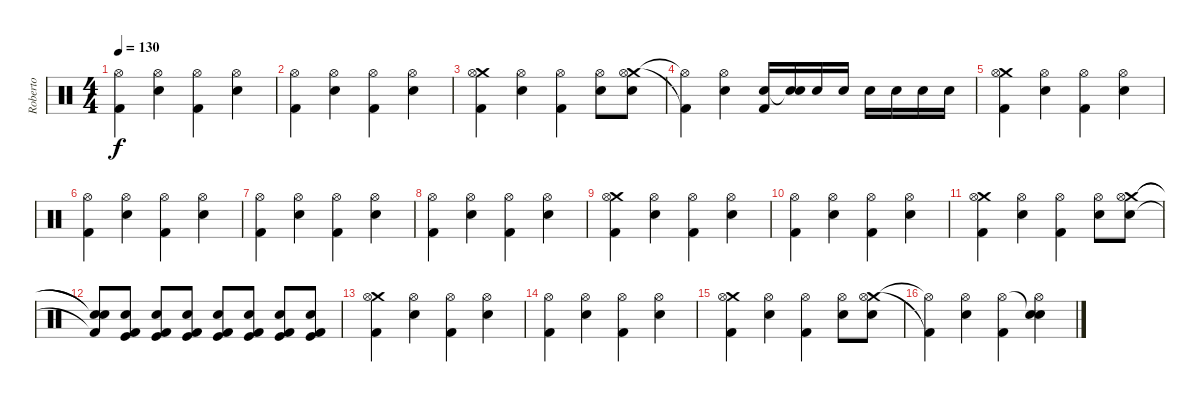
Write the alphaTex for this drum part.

\track ("Roberto" "Roberto") {instrument percussion}
\staff {score}
\articulation defaults
\ts (4 4)
\tempo 130
\clef neutral
\ks c
("Hi-Hat (open)" "Kick (hit) 2").4{dy f} ("Hi-Hat (open)" "Snare (hit) 2").4 ("Hi-Hat (open)" "Kick (hit) 2").4 ("Hi-Hat (open)" "Snare (hit) 2").4 |
("Hi-Hat (open)" "Kick (hit) 2").4 ("Hi-Hat (open)" "Snare (hit) 2").4 ("Hi-Hat (open)" "Kick (hit) 2").4 ("Hi-Hat (open)" "Snare (hit) 2").4 |
("Crash medium (hit)" "Hi-Hat (open)" "Kick (hit) 2").4 ("Hi-Hat (open)" "Snare (hit) 2").4 ("Hi-Hat (open)" "Kick (hit) 2").4 ("Hi-Hat (open)" "Snare (hit) 2").8 ("Crash medium (hit)" "Hi-Hat (open)" "Snare (hit) 2").8 |
("Hi-Hat (open)"{t} "Kick (hit) 2"{t}).4 ("Hi-Hat (open)" "Snare (hit) 2").4 ("Snare (hit) 2" "Kick (hit) 2").16 ("Snare (hit)"{t} "Snare (hit) 2").16 "Snare (hit) 2".16 "Snare (hit) 2".16 "Snare (hit) 2".16 "Snare (hit) 2".16 "Snare (hit) 2".16 "Snare (hit) 2".16 |
("Crash medium (hit)" "Hi-Hat (open)" "Kick (hit) 2").4 ("Hi-Hat (open)" "Snare (hit) 2").4 ("Hi-Hat (open)" "Kick (hit) 2").4 ("Hi-Hat (open)" "Snare (hit) 2").4 |
("Hi-Hat (open)" "Kick (hit) 2").4 ("Hi-Hat (open)" "Snare (hit) 2").4 ("Hi-Hat (open)" "Kick (hit) 2").4 ("Hi-Hat (open)" "Snare (hit) 2").4 |
("Hi-Hat (open)" "Kick (hit) 2").4 ("Hi-Hat (open)" "Snare (hit) 2").4 ("Hi-Hat (open)" "Kick (hit) 2").4 ("Hi-Hat (open)" "Snare (hit) 2").4 |
("Hi-Hat (open)" "Kick (hit) 2").4 ("Hi-Hat (open)" "Snare (hit) 2").4 ("Hi-Hat (open)" "Kick (hit) 2").4 ("Hi-Hat (open)" "Snare (hit) 2").4 |
("Crash medium (hit)" "Hi-Hat (open)" "Kick (hit) 2").4 ("Hi-Hat (open)" "Snare (hit) 2").4 ("Hi-Hat (open)" "Kick (hit) 2").4 ("Hi-Hat (open)" "Snare (hit) 2").4 |
("Hi-Hat (open)" "Kick (hit) 2").4 ("Hi-Hat (open)" "Snare (hit) 2").4 ("Hi-Hat (open)" "Kick (hit) 2").4 ("Hi-Hat (open)" "Snare (hit) 2").4 |
("Crash medium (hit)" "Hi-Hat (open)" "Kick (hit) 2").4 ("Hi-Hat (open)" "Snare (hit) 2").4 ("Hi-Hat (open)" "Kick (hit) 2").4 ("Hi-Hat (open)" "Snare (hit) 2").8 ("Crash medium (hit)" "Hi-Hat (open)" "Snare (hit) 2").8 |
("Snare (hit)"{t} "Snare (hit)"{t} "Kick (hit) 2"{t}).8 ("Snare (hit) 2" "Kick (hit) 2" "Kick (hit)").8 ("Snare (hit) 2" "Kick (hit)" "Kick (hit) 2").8 ("Snare (hit) 2" "Kick (hit)" "Kick (hit) 2").8 ("Snare (hit) 2" "Kick (hit)" "Kick (hit) 2").8 ("Snare (hit) 2" "Kick (hit)" "Kick (hit) 2").8 ("Snare (hit) 2" "Kick (hit)" "Kick (hit) 2").8 ("Snare (hit) 2" "Kick (hit)" "Kick (hit) 2").8 |
("Crash medium (hit)" "Hi-Hat (open)" "Kick (hit) 2").4 ("Hi-Hat (open)" "Snare (hit) 2").4 ("Hi-Hat (open)" "Kick (hit) 2").4 ("Hi-Hat (open)" "Snare (hit) 2").4 |
("Hi-Hat (open)" "Kick (hit) 2").4 ("Hi-Hat (open)" "Snare (hit) 2").4 ("Hi-Hat (open)" "Kick (hit) 2").4 ("Hi-Hat (open)" "Snare (hit) 2").4 |
("Crash medium (hit)" "Hi-Hat (open)" "Kick (hit) 2").4 ("Hi-Hat (open)" "Snare (hit) 2").4 ("Hi-Hat (open)" "Kick (hit) 2").4 ("Hi-Hat (open)" "Snare (hit) 2").8 ("Crash medium (hit)" "Hi-Hat (open)" "Snare (hit) 2").8 |
("Hi-Hat (open)"{t} "Kick (hit) 2"{t}).4 ("Hi-Hat (open)" "Snare (hit) 2").4 ("Hi-Hat (open)" "Kick (hit) 2").4 ("Snare (hit)"{t} "Hi-Hat (open)" "Snare (hit) 2").4
